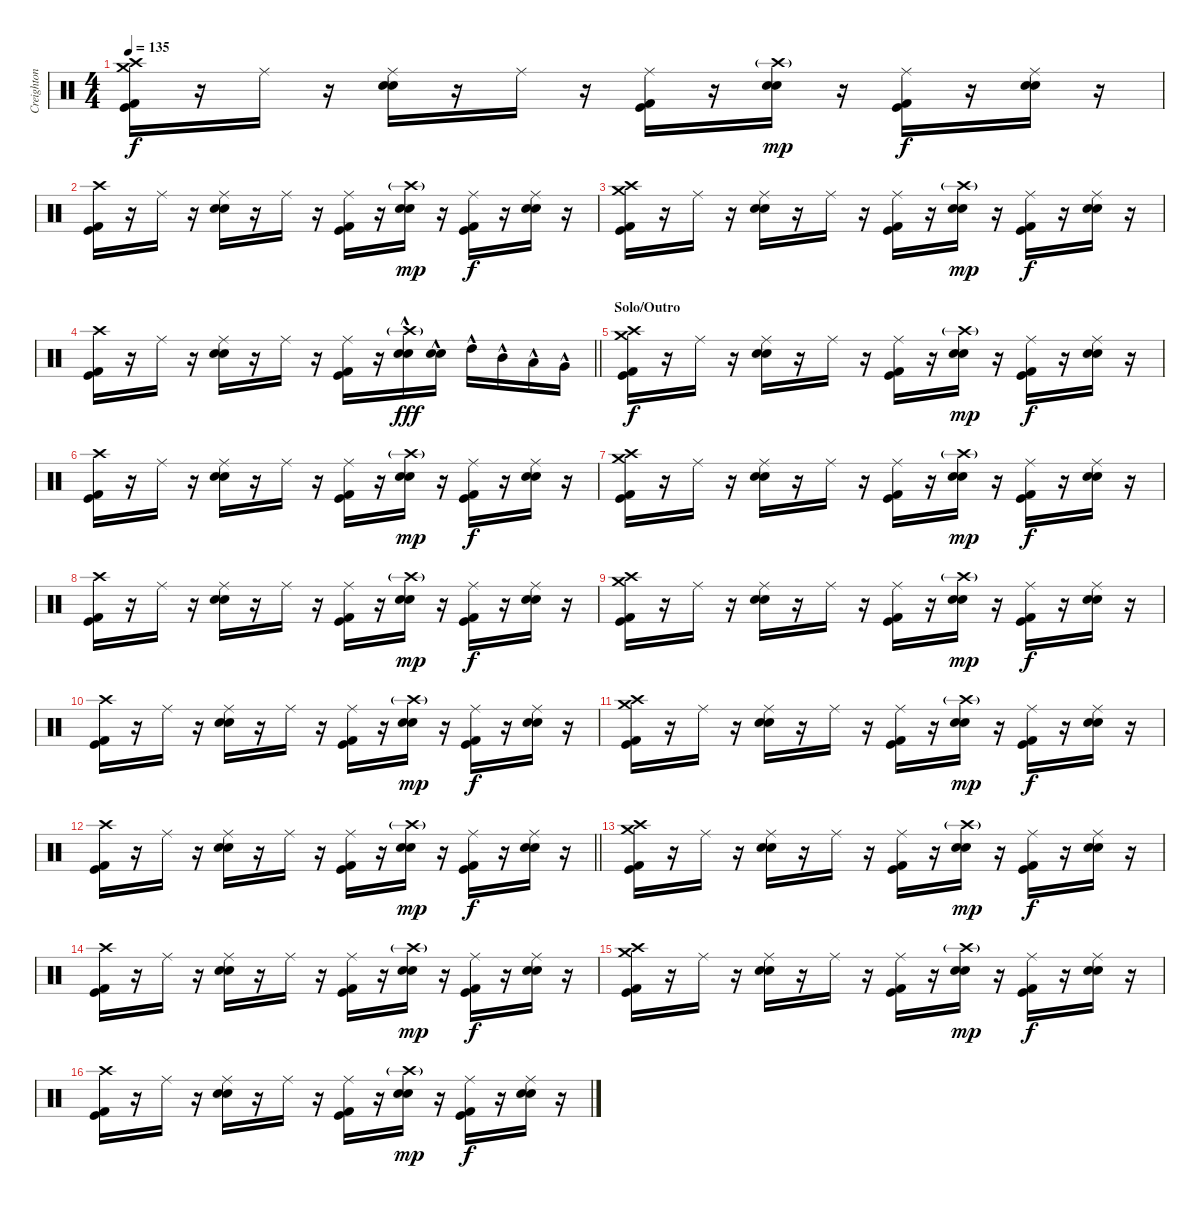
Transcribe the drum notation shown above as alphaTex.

\track ("Creighton Barrett (Drums)" "Creighton ") {instrument percussion}
\staff {score}
\articulation defaults
\ts (4 4)
\tempo 135
\clef neutral
\ks c
("Crash high (hit)" "Crash medium (hit)" "Kick (hit)" "Kick (hit) 2").16{dy f} r.16 "Ride (middle)".16 r.16 ("Ride (middle)" "Electric Snare (hit)" "Snare (hit) 2").16 r.16 "Ride (middle)".16 r.16 ("Ride (middle)" "Kick (hit)" "Kick (hit) 2").16 r.16 ("Crash high (hit)"{g} "Electric Snare (hit)" "Snare (hit) 2").16{dy mp} r.16 ("Ride (middle)" "Kick (hit)" "Kick (hit) 2").16{dy f} r.16 ("Ride (middle)" "Electric Snare (hit)" "Snare (hit) 2").16 r.16 |
("Crash high (hit)" "Kick (hit)" "Kick (hit) 2").16 r.16 "Ride (middle)".16 r.16 ("Ride (middle)" "Electric Snare (hit)" "Snare (hit) 2").16 r.16 "Ride (middle)".16 r.16 ("Ride (middle)" "Kick (hit)" "Kick (hit) 2").16 r.16 ("Crash high (hit)"{g} "Electric Snare (hit)" "Snare (hit) 2").16{dy mp} r.16 ("Ride (middle)" "Kick (hit)" "Kick (hit) 2").16{dy f} r.16 ("Ride (middle)" "Electric Snare (hit)" "Snare (hit) 2").16 r.16 |
("Crash high (hit)" "Crash medium (hit)" "Kick (hit)" "Kick (hit) 2").16 r.16 "Ride (middle)".16 r.16 ("Ride (middle)" "Electric Snare (hit)" "Snare (hit) 2").16 r.16 "Ride (middle)".16 r.16 ("Ride (middle)" "Kick (hit)" "Kick (hit) 2").16 r.16 ("Crash high (hit)"{g} "Electric Snare (hit)" "Snare (hit) 2").16{dy mp} r.16 ("Ride (middle)" "Kick (hit)" "Kick (hit) 2").16{dy f} r.16 ("Ride (middle)" "Electric Snare (hit)" "Snare (hit) 2").16 r.16 |
\barLineRight lightlight
("Crash high (hit)" "Kick (hit)" "Kick (hit) 2").16 r.16 "Ride (middle)".16 r.16 ("Ride (middle)" "Electric Snare (hit)" "Snare (hit) 2").16 r.16 "Ride (middle)".16 r.16 ("Ride (middle)" "Kick (hit)" "Kick (hit) 2").16 r.16 ("Crash high (hit)"{g} "Electric Snare (hit)"{hac} "Snare (hit) 2"{hac}).16{dy fff} ("Electric Snare (hit)"{hac} "Snare (hit) 2"{hac}).16 "High Tom (hit)"{hac}.16 "Mid Tom (hit)"{hac}.16 "Low Tom (hit)"{hac}.16 "Very Low Tom (hit)"{hac}.16 |
\section ("" "Solo/Outro")
("Crash high (hit)" "Crash medium (hit)" "Kick (hit)" "Kick (hit) 2").16{dy f} r.16 "Ride (middle)".16 r.16 ("Ride (middle)" "Electric Snare (hit)" "Snare (hit) 2").16 r.16 "Ride (middle)".16 r.16 ("Ride (middle)" "Kick (hit)" "Kick (hit) 2").16 r.16 ("Crash high (hit)"{g} "Electric Snare (hit)" "Snare (hit) 2").16{dy mp} r.16 ("Ride (middle)" "Kick (hit)" "Kick (hit) 2").16{dy f} r.16 ("Ride (middle)" "Electric Snare (hit)" "Snare (hit) 2").16 r.16 |
("Crash high (hit)" "Kick (hit)" "Kick (hit) 2").16 r.16 "Ride (middle)".16 r.16 ("Ride (middle)" "Electric Snare (hit)" "Snare (hit) 2").16 r.16 "Ride (middle)".16 r.16 ("Ride (middle)" "Kick (hit)" "Kick (hit) 2").16 r.16 ("Crash high (hit)"{g} "Electric Snare (hit)" "Snare (hit) 2").16{dy mp} r.16 ("Ride (middle)" "Kick (hit)" "Kick (hit) 2").16{dy f} r.16 ("Ride (middle)" "Electric Snare (hit)" "Snare (hit) 2").16 r.16 |
("Crash high (hit)" "Crash medium (hit)" "Kick (hit)" "Kick (hit) 2").16 r.16 "Ride (middle)".16 r.16 ("Ride (middle)" "Electric Snare (hit)" "Snare (hit) 2").16 r.16 "Ride (middle)".16 r.16 ("Ride (middle)" "Kick (hit)" "Kick (hit) 2").16 r.16 ("Crash high (hit)"{g} "Electric Snare (hit)" "Snare (hit) 2").16{dy mp} r.16 ("Ride (middle)" "Kick (hit)" "Kick (hit) 2").16{dy f} r.16 ("Ride (middle)" "Electric Snare (hit)" "Snare (hit) 2").16 r.16 |
("Crash high (hit)" "Kick (hit)" "Kick (hit) 2").16 r.16 "Ride (middle)".16 r.16 ("Ride (middle)" "Electric Snare (hit)" "Snare (hit) 2").16 r.16 "Ride (middle)".16 r.16 ("Ride (middle)" "Kick (hit)" "Kick (hit) 2").16 r.16 ("Crash high (hit)"{g} "Electric Snare (hit)" "Snare (hit) 2").16{dy mp} r.16 ("Ride (middle)" "Kick (hit)" "Kick (hit) 2").16{dy f} r.16 ("Ride (middle)" "Electric Snare (hit)" "Snare (hit) 2").16 r.16 |
("Crash high (hit)" "Crash medium (hit)" "Kick (hit)" "Kick (hit) 2").16 r.16 "Ride (middle)".16 r.16 ("Ride (middle)" "Electric Snare (hit)" "Snare (hit) 2").16 r.16 "Ride (middle)".16 r.16 ("Ride (middle)" "Kick (hit)" "Kick (hit) 2").16 r.16 ("Crash high (hit)"{g} "Electric Snare (hit)" "Snare (hit) 2").16{dy mp} r.16 ("Ride (middle)" "Kick (hit)" "Kick (hit) 2").16{dy f} r.16 ("Ride (middle)" "Electric Snare (hit)" "Snare (hit) 2").16 r.16 |
("Crash high (hit)" "Kick (hit)" "Kick (hit) 2").16 r.16 "Ride (middle)".16 r.16 ("Ride (middle)" "Electric Snare (hit)" "Snare (hit) 2").16 r.16 "Ride (middle)".16 r.16 ("Ride (middle)" "Kick (hit)" "Kick (hit) 2").16 r.16 ("Crash high (hit)"{g} "Electric Snare (hit)" "Snare (hit) 2").16{dy mp} r.16 ("Ride (middle)" "Kick (hit)" "Kick (hit) 2").16{dy f} r.16 ("Ride (middle)" "Electric Snare (hit)" "Snare (hit) 2").16 r.16 |
("Crash high (hit)" "Crash medium (hit)" "Kick (hit)" "Kick (hit) 2").16 r.16 "Ride (middle)".16 r.16 ("Ride (middle)" "Electric Snare (hit)" "Snare (hit) 2").16 r.16 "Ride (middle)".16 r.16 ("Ride (middle)" "Kick (hit)" "Kick (hit) 2").16 r.16 ("Crash high (hit)"{g} "Electric Snare (hit)" "Snare (hit) 2").16{dy mp} r.16 ("Ride (middle)" "Kick (hit)" "Kick (hit) 2").16{dy f} r.16 ("Ride (middle)" "Electric Snare (hit)" "Snare (hit) 2").16 r.16 |
\barLineRight lightlight
("Crash high (hit)" "Kick (hit)" "Kick (hit) 2").16 r.16 "Ride (middle)".16 r.16 ("Ride (middle)" "Electric Snare (hit)" "Snare (hit) 2").16 r.16 "Ride (middle)".16 r.16 ("Ride (middle)" "Kick (hit)" "Kick (hit) 2").16 r.16 ("Crash high (hit)"{g} "Electric Snare (hit)" "Snare (hit) 2").16{dy mp} r.16 ("Ride (middle)" "Kick (hit)" "Kick (hit) 2").16{dy f} r.16 ("Ride (middle)" "Electric Snare (hit)" "Snare (hit) 2").16 r.16 |
\section ("" "")
("Crash high (hit)" "Crash medium (hit)" "Kick (hit)" "Kick (hit) 2").16 r.16 "Ride (middle)".16 r.16 ("Ride (middle)" "Electric Snare (hit)" "Snare (hit) 2").16 r.16 "Ride (middle)".16 r.16 ("Ride (middle)" "Kick (hit)" "Kick (hit) 2").16 r.16 ("Crash high (hit)"{g} "Electric Snare (hit)" "Snare (hit) 2").16{dy mp} r.16 ("Ride (middle)" "Kick (hit)" "Kick (hit) 2").16{dy f} r.16 ("Ride (middle)" "Electric Snare (hit)" "Snare (hit) 2").16 r.16 |
("Crash high (hit)" "Kick (hit)" "Kick (hit) 2").16 r.16 "Ride (middle)".16 r.16 ("Ride (middle)" "Electric Snare (hit)" "Snare (hit) 2").16 r.16 "Ride (middle)".16 r.16 ("Ride (middle)" "Kick (hit)" "Kick (hit) 2").16 r.16 ("Crash high (hit)"{g} "Electric Snare (hit)" "Snare (hit) 2").16{dy mp} r.16 ("Ride (middle)" "Kick (hit)" "Kick (hit) 2").16{dy f} r.16 ("Ride (middle)" "Electric Snare (hit)" "Snare (hit) 2").16 r.16 |
("Crash high (hit)" "Crash medium (hit)" "Kick (hit)" "Kick (hit) 2").16 r.16 "Ride (middle)".16 r.16 ("Ride (middle)" "Electric Snare (hit)" "Snare (hit) 2").16 r.16 "Ride (middle)".16 r.16 ("Ride (middle)" "Kick (hit)" "Kick (hit) 2").16 r.16 ("Crash high (hit)"{g} "Electric Snare (hit)" "Snare (hit) 2").16{dy mp} r.16 ("Ride (middle)" "Kick (hit)" "Kick (hit) 2").16{dy f} r.16 ("Ride (middle)" "Electric Snare (hit)" "Snare (hit) 2").16 r.16 |
("Crash high (hit)" "Kick (hit)" "Kick (hit) 2").16 r.16 "Ride (middle)".16 r.16 ("Ride (middle)" "Electric Snare (hit)" "Snare (hit) 2").16 r.16 "Ride (middle)".16 r.16 ("Ride (middle)" "Kick (hit)" "Kick (hit) 2").16 r.16 ("Crash high (hit)"{g} "Electric Snare (hit)" "Snare (hit) 2").16{dy mp} r.16 ("Ride (middle)" "Kick (hit)" "Kick (hit) 2").16{dy f} r.16 ("Ride (middle)" "Electric Snare (hit)" "Snare (hit) 2").16 r.16
